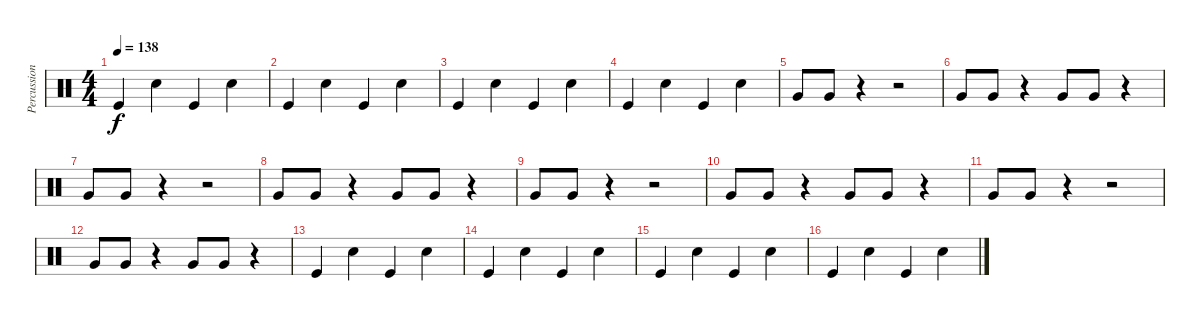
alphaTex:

\track ("Percussion" "Percussion") {instrument percussion}
\staff {score}
\articulation defaults
\ts (4 4)
\tempo 138
\clef neutral
\ks c "Kick (hit)".4{dy f} "Snare (hit) 2".4 "Kick (hit)".4 "Snare (hit) 2".4
|
"Kick (hit)".4 "Snare (hit) 2".4 "Kick (hit)".4 "Snare (hit) 2".4 |
"Kick (hit)".4 "Snare (hit) 2".4 "Kick (hit)".4 "Snare (hit) 2".4 |
"Kick (hit)".4 "Snare (hit) 2".4 "Kick (hit)".4 "Snare (hit) 2".4 |
"Very Low Tom (hit)".8 "Very Low Tom (hit)".8 r.4 r.2 |
"Very Low Tom (hit)".8 "Very Low Tom (hit)".8 r.4 "Very Low Tom (hit)".8 "Very Low Tom (hit)".8 r.4 |
"Very Low Tom (hit)".8 "Very Low Tom (hit)".8 r.4 r.2 |
"Very Low Tom (hit)".8 "Very Low Tom (hit)".8 r.4 "Very Low Tom (hit)".8 "Very Low Tom (hit)".8 r.4 |
"Very Low Tom (hit)".8 "Very Low Tom (hit)".8 r.4 r.2 |
"Very Low Tom (hit)".8 "Very Low Tom (hit)".8 r.4 "Very Low Tom (hit)".8 "Very Low Tom (hit)".8 r.4 |
"Very Low Tom (hit)".8 "Very Low Tom (hit)".8 r.4 r.2 |
"Very Low Tom (hit)".8 "Very Low Tom (hit)".8 r.4 "Very Low Tom (hit)".8 "Very Low Tom (hit)".8 r.4 |
"Kick (hit)".4 "Snare (hit) 2".4 "Kick (hit)".4 "Snare (hit) 2".4 |
"Kick (hit)".4 "Snare (hit) 2".4 "Kick (hit)".4 "Snare (hit) 2".4 |
"Kick (hit)".4 "Snare (hit) 2".4 "Kick (hit)".4 "Snare (hit) 2".4 |
"Kick (hit)".4 "Snare (hit) 2".4 "Kick (hit)".4 "Snare (hit) 2".4
